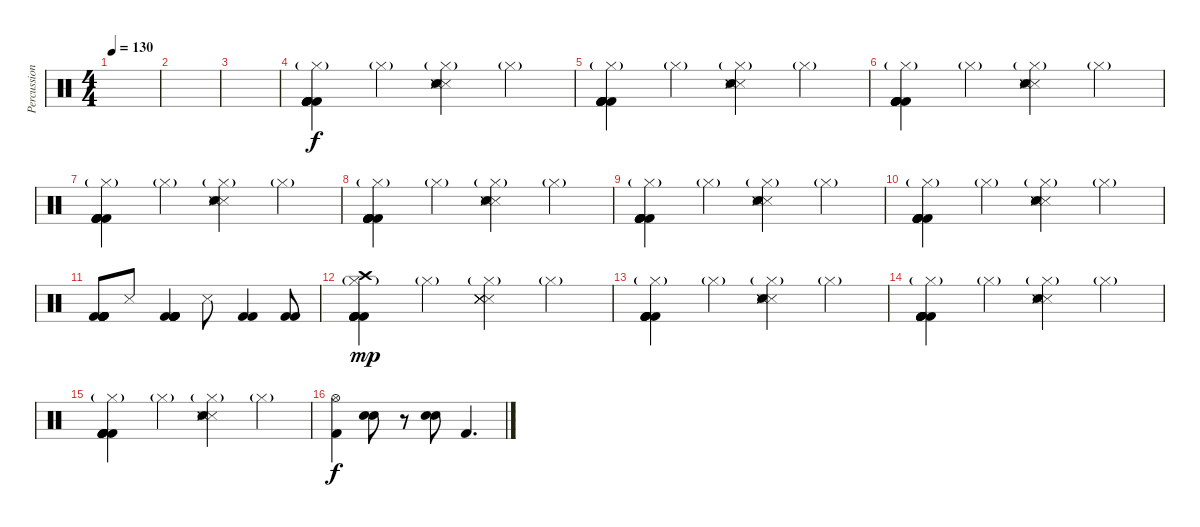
\track ("Percussion" "Percussion") {instrument percussion}
\staff {score}
\articulation defaults
\ts (4 4)
\tempo 130
\clef neutral
\ks c
|
|
|
("Kick (hit) 2" "Kick (hit) 2" "Kick (hit) 2" "Kick (hit) 2" "Hi-Hat (closed)"{g} "Kick (hit) 2").4 "Hi-Hat (closed)"{g}.4 ("Snare (side stick) 3" "Snare (side stick) 3" "Snare (side stick) 3" "Hi-Hat (closed)"{g} "Snare (hit)" "Snare (side stick) 3").4 "Hi-Hat (closed)"{g}.4 |
("Kick (hit) 2" "Kick (hit) 2" "Kick (hit) 2" "Kick (hit) 2" "Hi-Hat (closed)"{g} "Kick (hit) 2").4 "Hi-Hat (closed)"{g}.4 ("Snare (side stick) 3" "Snare (side stick) 3" "Snare (side stick) 3" "Hi-Hat (closed)"{g} "Snare (hit)" "Snare (side stick) 3").4 "Hi-Hat (closed)"{g}.4 |
("Kick (hit) 2" "Kick (hit) 2" "Kick (hit) 2" "Kick (hit) 2" "Hi-Hat (closed)"{g} "Kick (hit) 2").4 "Hi-Hat (closed)"{g}.4 ("Snare (side stick) 3" "Snare (side stick) 3" "Snare (side stick) 3" "Hi-Hat (closed)"{g} "Snare (hit)" "Snare (side stick) 3").4 "Hi-Hat (closed)"{g}.4 |
("Kick (hit) 2" "Kick (hit) 2" "Kick (hit) 2" "Kick (hit) 2" "Hi-Hat (closed)"{g} "Kick (hit) 2").4 "Hi-Hat (closed)"{g}.4 ("Snare (side stick) 3" "Snare (side stick) 3" "Snare (side stick) 3" "Hi-Hat (closed)"{g} "Snare (hit)" "Snare (side stick) 3").4 "Hi-Hat (closed)"{g}.4 |
("Kick (hit) 2" "Kick (hit) 2" "Kick (hit) 2" "Kick (hit) 2" "Hi-Hat (closed)"{g} "Kick (hit) 2").4 "Hi-Hat (closed)"{g}.4 ("Snare (side stick) 3" "Snare (side stick) 3" "Snare (side stick) 3" "Hi-Hat (closed)"{g} "Snare (hit)" "Snare (side stick) 3").4 "Hi-Hat (closed)"{g}.4 |
("Kick (hit) 2" "Kick (hit) 2" "Kick (hit) 2" "Kick (hit) 2" "Hi-Hat (closed)"{g} "Kick (hit) 2").4 "Hi-Hat (closed)"{g}.4 ("Snare (side stick) 3" "Snare (side stick) 3" "Snare (side stick) 3" "Hi-Hat (closed)"{g} "Snare (hit)" "Snare (side stick) 3").4 "Hi-Hat (closed)"{g}.4 |
("Kick (hit) 2" "Kick (hit) 2" "Kick (hit) 2" "Kick (hit) 2" "Hi-Hat (closed)"{g} "Kick (hit) 2").4 "Hi-Hat (closed)"{g}.4 ("Snare (side stick) 3" "Snare (side stick) 3" "Snare (side stick) 3" "Hi-Hat (closed)"{g} "Snare (hit)" "Snare (side stick) 3").4 "Hi-Hat (closed)"{g}.4 |
("Kick (hit) 2" "Kick (hit) 2" "Kick (hit) 2" "Kick (hit) 2" "Kick (hit) 2" "Kick (hit) 2").8{dy f} "Snare (side stick) 3".8 ("Kick (hit) 2" "Kick (hit) 2" "Kick (hit) 2" "Kick (hit) 2" "Kick (hit) 2" "Kick (hit) 2").4 "Snare (side stick) 3".8 ("Kick (hit) 2" "Kick (hit) 2").4 ("Kick (hit) 2" "Kick (hit) 2").8 |
("Crash high (hit)" "Kick (hit) 2" "Kick (hit) 2" "Kick (hit) 2" "Hi-Hat (closed)"{g} "Kick (hit) 2").4{dy mp} "Hi-Hat (closed)"{g}.4 ("Snare (side stick) 3" "Snare (side stick) 3" "Snare (side stick) 3" "Hi-Hat (closed)"{g} "Snare (side stick) 3" "Snare (side stick) 3").4 "Hi-Hat (closed)"{g}.4 |
("Kick (hit) 2" "Kick (hit) 2" "Kick (hit) 2" "Kick (hit) 2" "Hi-Hat (closed)"{g} "Kick (hit) 2").4 "Hi-Hat (closed)"{g}.4 ("Snare (side stick) 3" "Snare (side stick) 3" "Snare (side stick) 3" "Hi-Hat (closed)"{g} "Snare (hit)" "Snare (side stick) 3").4 "Hi-Hat (closed)"{g}.4 |
("Kick (hit) 2" "Kick (hit) 2" "Kick (hit) 2" "Kick (hit) 2" "Hi-Hat (closed)"{g} "Kick (hit) 2").4 "Hi-Hat (closed)"{g}.4 ("Snare (side stick) 3" "Snare (side stick) 3" "Snare (side stick) 3" "Hi-Hat (closed)"{g} "Snare (hit)" "Snare (side stick) 3").4 "Hi-Hat (closed)"{g}.4 |
("Kick (hit) 2" "Kick (hit) 2" "Kick (hit) 2" "Kick (hit) 2" "Hi-Hat (closed)"{g} "Kick (hit) 2").4 "Hi-Hat (closed)"{g}.4 ("Snare (side stick) 3" "Snare (side stick) 3" "Snare (side stick) 3" "Hi-Hat (closed)"{g} "Snare (hit)" "Snare (side stick) 3").4 "Hi-Hat (closed)"{g}.4 |
("Hi-Hat (open)" "Kick (hit) 2").4{dy f} ("Electric Snare (hit)" "Snare (hit) 2").8 r.8 ("Electric Snare (hit)" "Snare (hit) 2").8 "Kick (hit) 2".4{d}
